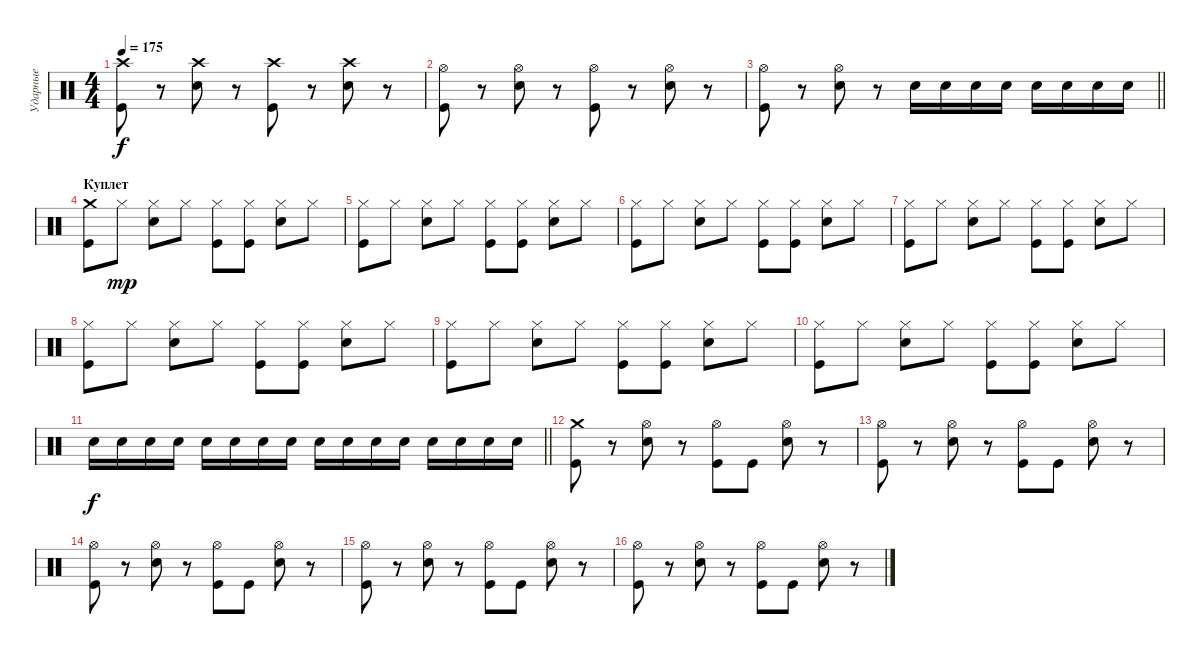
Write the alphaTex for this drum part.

\track ("Ударные" "Ударные") {instrument percussion}
\staff {score}
\articulation defaults
\ts (4 4)
\tempo 175
\clef neutral
\ks c
("Crash high (hit)" "Kick (hit)").8{dy f} r.8 ("Crash high (hit)" "Electric Snare (hit)").8 r.8 ("Crash high (hit)" "Kick (hit)").8 r.8 ("Crash high (hit)" "Electric Snare (hit)").8 r.8 |
("Hi-Hat (open)" "Kick (hit)").8 r.8 ("Hi-Hat (open)" "Electric Snare (hit)").8 r.8 ("Hi-Hat (open)" "Kick (hit)").8 r.8 ("Hi-Hat (open)" "Electric Snare (hit)").8 r.8 |
\barLineRight lightlight
("Hi-Hat (open)" "Kick (hit)").8 r.8 ("Hi-Hat (open)" "Electric Snare (hit)").8 r.8 "Electric Snare (hit)".16 "Electric Snare (hit)".16 "Electric Snare (hit)".16 "Electric Snare (hit)".16 "Electric Snare (hit)".16 "Electric Snare (hit)".16 "Electric Snare (hit)".16 "Electric Snare (hit)".16 |
\section ("" "Куплет")
("Crash medium (hit)" "Kick (hit)").8 "Hi-Hat (closed)".8{dy mp} ("Hi-Hat (closed)" "Electric Snare (hit)").8 "Hi-Hat (closed)".8 ("Hi-Hat (closed)" "Kick (hit)").8 ("Hi-Hat (closed)" "Kick (hit)").8 ("Hi-Hat (closed)" "Electric Snare (hit)").8 "Hi-Hat (closed)".8 |
("Hi-Hat (closed)" "Kick (hit)").8 "Hi-Hat (closed)".8 ("Hi-Hat (closed)" "Electric Snare (hit)").8 "Hi-Hat (closed)".8 ("Hi-Hat (closed)" "Kick (hit)").8 ("Hi-Hat (closed)" "Kick (hit)").8 ("Hi-Hat (closed)" "Electric Snare (hit)").8 "Hi-Hat (closed)".8 |
("Hi-Hat (closed)" "Kick (hit)").8 "Hi-Hat (closed)".8 ("Hi-Hat (closed)" "Electric Snare (hit)").8 "Hi-Hat (closed)".8 ("Hi-Hat (closed)" "Kick (hit)").8 ("Hi-Hat (closed)" "Kick (hit)").8 ("Hi-Hat (closed)" "Electric Snare (hit)").8 "Hi-Hat (closed)".8 |
("Hi-Hat (closed)" "Kick (hit)").8 "Hi-Hat (closed)".8 ("Hi-Hat (closed)" "Electric Snare (hit)").8 "Hi-Hat (closed)".8 ("Hi-Hat (closed)" "Kick (hit)").8 ("Hi-Hat (closed)" "Kick (hit)").8 ("Hi-Hat (closed)" "Electric Snare (hit)").8 "Hi-Hat (closed)".8 |
("Hi-Hat (closed)" "Kick (hit)").8 "Hi-Hat (closed)".8 ("Hi-Hat (closed)" "Electric Snare (hit)").8 "Hi-Hat (closed)".8 ("Hi-Hat (closed)" "Kick (hit)").8 ("Hi-Hat (closed)" "Kick (hit)").8 ("Hi-Hat (closed)" "Electric Snare (hit)").8 "Hi-Hat (closed)".8 |
("Hi-Hat (closed)" "Kick (hit)").8 "Hi-Hat (closed)".8 ("Hi-Hat (closed)" "Electric Snare (hit)").8 "Hi-Hat (closed)".8 ("Hi-Hat (closed)" "Kick (hit)").8 ("Hi-Hat (closed)" "Kick (hit)").8 ("Hi-Hat (closed)" "Electric Snare (hit)").8 "Hi-Hat (closed)".8 |
("Hi-Hat (closed)" "Kick (hit)").8 "Hi-Hat (closed)".8 ("Hi-Hat (closed)" "Electric Snare (hit)").8 "Hi-Hat (closed)".8 ("Hi-Hat (closed)" "Kick (hit)").8 ("Hi-Hat (closed)" "Kick (hit)").8 ("Hi-Hat (closed)" "Electric Snare (hit)").8 "Hi-Hat (closed)".8 |
\barLineRight lightlight "Electric Snare (hit)".16{dy f} "Electric Snare (hit)".16 "Electric Snare (hit)".16 "Electric Snare (hit)".16 "Electric Snare (hit)".16 "Electric Snare (hit)".16 "Electric Snare (hit)".16 "Electric Snare (hit)".16 "Electric Snare (hit)".16 "Electric Snare (hit)".16 "Electric Snare (hit)".16 "Electric Snare (hit)".16 "Electric Snare (hit)".16 "Electric Snare (hit)".16 "Electric Snare (hit)".16 "Electric Snare (hit)".16
|
\section ("" " ")
("Crash medium (hit)" "Kick (hit)").8 r.8 ("Hi-Hat (open)" "Electric Snare (hit)").8 r.8 ("Hi-Hat (open)" "Kick (hit)").8 "Kick (hit)".8 ("Hi-Hat (open)" "Electric Snare (hit)").8 r.8 |
("Hi-Hat (open)" "Kick (hit)").8 r.8 ("Hi-Hat (open)" "Electric Snare (hit)").8 r.8 ("Hi-Hat (open)" "Kick (hit)").8 "Kick (hit)".8 ("Hi-Hat (open)" "Electric Snare (hit)").8 r.8 |
("Hi-Hat (open)" "Kick (hit)").8 r.8 ("Hi-Hat (open)" "Electric Snare (hit)").8 r.8 ("Hi-Hat (open)" "Kick (hit)").8 "Kick (hit)".8 ("Hi-Hat (open)" "Electric Snare (hit)").8 r.8 |
("Hi-Hat (open)" "Kick (hit)").8 r.8 ("Hi-Hat (open)" "Electric Snare (hit)").8 r.8 ("Hi-Hat (open)" "Kick (hit)").8 "Kick (hit)".8 ("Hi-Hat (open)" "Electric Snare (hit)").8 r.8 |
("Hi-Hat (open)" "Kick (hit)").8 r.8 ("Hi-Hat (open)" "Electric Snare (hit)").8 r.8 ("Hi-Hat (open)" "Kick (hit)").8 "Kick (hit)".8 ("Hi-Hat (open)" "Electric Snare (hit)").8 r.8
